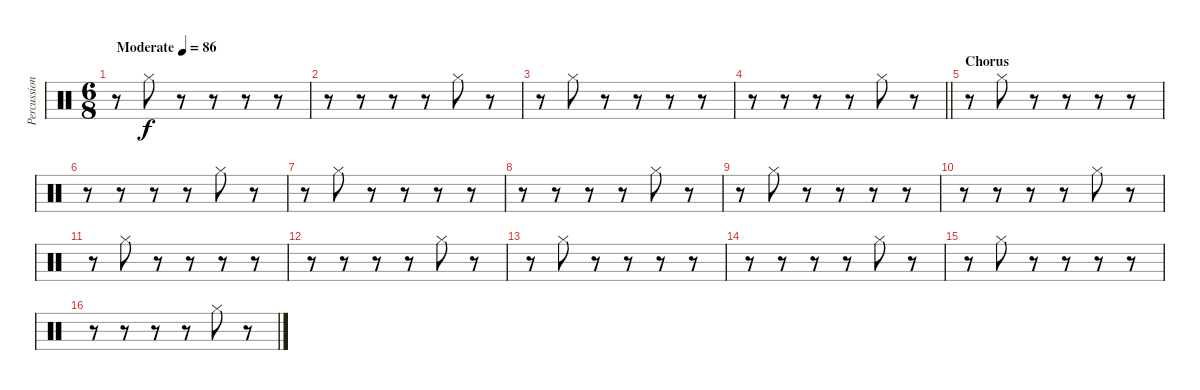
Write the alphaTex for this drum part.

\track ("Percussion" "Percussion") {instrument percussion}
\staff {score}
\articulation defaults
\ts (6 8)
\tempo (86 "Moderate")
\clef neutral
\ks c
r.8{dy f} "Hi-Hat (closed)".8 r.8 r.8 r.8 r.8 |
r.8 r.8 r.8 r.8 "Hi-Hat (closed)".8 r.8 |
r.8 "Hi-Hat (closed)".8 r.8 r.8 r.8 r.8 |
\barLineRight lightlight
r.8 r.8 r.8 r.8 "Hi-Hat (closed)".8 r.8 |
\section ("" "Chorus")
r.8 "Hi-Hat (closed)".8 r.8 r.8 r.8 r.8 |
r.8 r.8 r.8 r.8 "Hi-Hat (closed)".8 r.8 |
r.8 "Hi-Hat (closed)".8 r.8 r.8 r.8 r.8 |
r.8 r.8 r.8 r.8 "Hi-Hat (closed)".8 r.8 |
r.8 "Hi-Hat (closed)".8 r.8 r.8 r.8 r.8 |
r.8 r.8 r.8 r.8 "Hi-Hat (closed)".8 r.8 |
r.8 "Hi-Hat (closed)".8 r.8 r.8 r.8 r.8 |
r.8 r.8 r.8 r.8 "Hi-Hat (closed)".8 r.8 |
r.8 "Hi-Hat (closed)".8 r.8 r.8 r.8 r.8 |
r.8 r.8 r.8 r.8 "Hi-Hat (closed)".8 r.8 |
r.8 "Hi-Hat (closed)".8 r.8 r.8 r.8 r.8 |
r.8 r.8 r.8 r.8 "Hi-Hat (closed)".8 r.8
